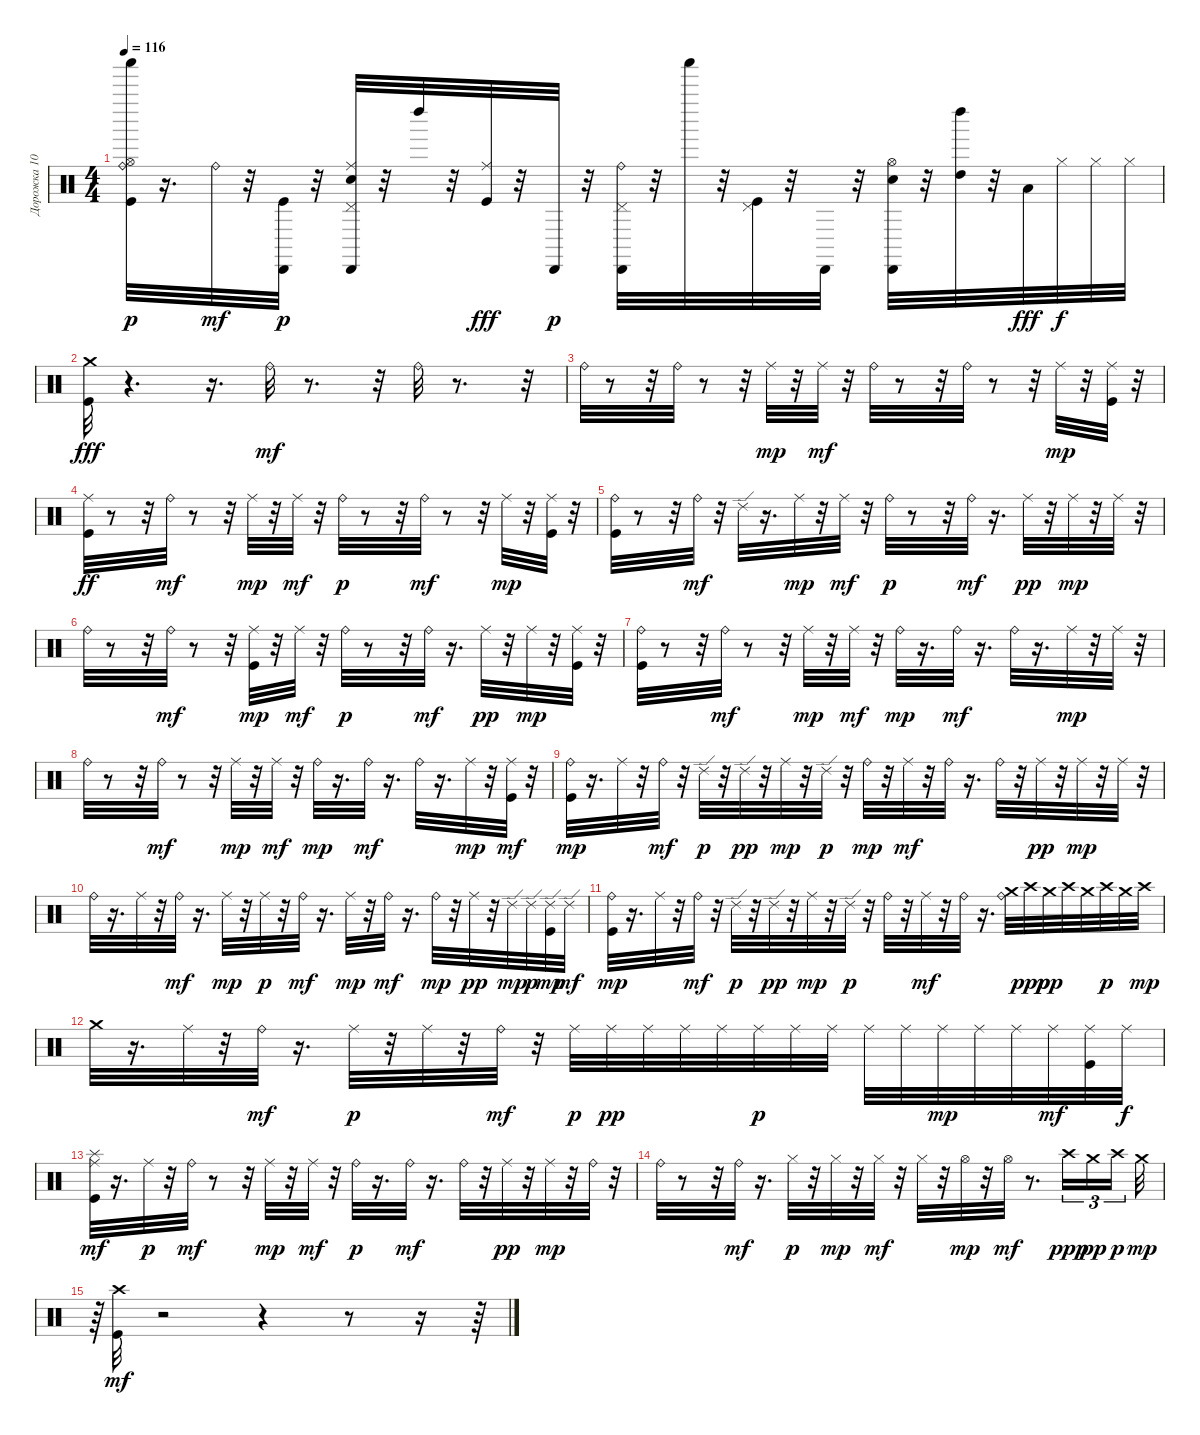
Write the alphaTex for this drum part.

\track ("Дорожка 10" "Дорожка 10") {instrument percussion}
\staff {score}
\articulation defaults
\ts (4 4)
\tempo 116
\clef neutral
\ks c
("Kick (hit)" "Hi-Hat (open)" "Ride (bell)" "Shaker (hit)").32{dy p} r.16{d} "Ride (bell)".32{dy mf} r.32 ("Kick (hit)" "Cabasa (hit)").32{dy p} r.32 ("Electric Snare (hit)" "Ride (middle)" "Pedal Hi-Hat (hit)" "Cabasa (hit)").32 r.32 "Left Maraca (hit)".32 r.32 ("Kick (hit)" "Ride (middle)").32{dy fff} r.32 "Cabasa (hit)".32{dy p} r.32 ("Pedal Hi-Hat (hit)" "Ride (bell)" "Cabasa (hit)").32 r.32 "Shaker (hit)".32 r.32 ("Kick (hit)" "Pedal Hi-Hat (hit)").32 r.32 "Cabasa (hit)".32 r.32 ("Electric Snare (hit)" "Hi-Hat (open)" "Cabasa (hit)").32 r.32 ("High Tom (hit)" "Left Maraca (hit)").32 r.32 "Low Tom (hit)".32{dy fff} "Hi-Hat (closed)".32{dy f} "Hi-Hat (closed)".32 "Hi-Hat (closed)".32 |
("Kick (hit)" "Crash medium (hit)").32{dy fff} r.4{d} r.16{d} "Ride (bell)".32{dy mf} r.8{d} r.32 "Ride (bell)".32 r.8{d} r.32 |
"Ride (bell)".32 r.8 r.32 "Ride (bell)".32 r.8 r.32 "Ride (middle)".32{dy mp} r.32 "Ride (middle)".32{dy mf} r.32 "Ride (bell)".32 r.8 r.32 "Ride (bell)".32 r.8 r.32 "Ride (middle)".32{dy mp} r.32 ("Ride (middle)" "Kick (hit)").32 r.32 |
("Kick (hit)" "Ride (middle)").32{dy ff} r.8 r.32 "Ride (bell)".32{dy mf} r.8 r.32 "Ride (middle)".32{dy mp} r.32 "Ride (middle)".32{dy mf} r.32 "Ride (bell)".32{dy p} r.8 r.32 "Ride (bell)".32{dy mf} r.8 r.32 "Ride (middle)".32{dy mp} r.32 ("Ride (middle)" "Kick (hit)").32 r.32 |
("Ride (bell)" "Kick (hit)").32 r.8 r.32 "Ride (bell)".32{dy mf} r.32 "Ride (edge) 2".32 r.16{d} "Ride (middle)".32{dy mp} r.32 "Ride (middle)".32{dy mf} r.32 "Ride (bell)".32{dy p} r.8 r.32 "Ride (bell)".32{dy mf} r.16{d} "Ride (middle)".32{dy pp} r.32 "Ride (middle)".32{dy mp} r.32 "Ride (middle)".32 r.32 |
"Ride (bell)".32 r.8 r.32 "Ride (bell)".32{dy mf} r.8 r.32 ("Ride (middle)" "Kick (hit)").32{dy mp} r.32 "Ride (middle)".32{dy mf} r.32 "Ride (bell)".32{dy p} r.8 r.32 "Ride (bell)".32{dy mf} r.16{d} "Ride (middle)".32{dy pp} r.32 "Ride (middle)".32{dy mp} r.32 ("Ride (middle)" "Kick (hit)").32 r.32 |
("Ride (bell)" "Kick (hit)").32 r.8 r.32 "Ride (bell)".32{dy mf} r.8 r.32 "Ride (middle)".32{dy mp} r.32 "Ride (middle)".32{dy mf} r.32 "Ride (bell)".32{dy mp} r.16{d} "Ride (bell)".32{dy mf} r.16{d} "Ride (bell)".32 r.16{d} "Ride (middle)".32{dy mp} r.32 "Ride (middle)".32 r.32 |
"Ride (bell)".32 r.8 r.32 "Ride (bell)".32{dy mf} r.8 r.32 "Ride (middle)".32{dy mp} r.32 "Ride (middle)".32{dy mf} r.32 "Ride (bell)".32{dy mp} r.16{d} "Ride (bell)".32{dy mf} r.16{d} "Ride (bell)".32 r.16{d} "Ride (middle)".32{dy mp} r.32 ("Ride (middle)" "Kick (hit)").32{dy mf} r.32 |
("Ride (bell)" "Kick (hit)").32{dy mp} r.16{d} "Ride (middle)".32 r.32 "Ride (bell)".32{dy mf} r.32 "Ride (edge) 2".32{dy p} r.32 "Ride (edge) 2".32{dy pp} r.32 "Ride (middle)".32{dy mp} r.32 "Ride (edge) 2".32{dy p} r.32 "Ride (bell)".32{dy mp} r.32 "Ride (middle)".32{dy mf} r.32 "Ride (bell)".32 r.16{d} "Ride (bell)".32 r.32 "Ride (middle)".32{dy pp} r.32 "Ride (middle)".32{dy mp} r.32 "Ride (middle)".32 r.32 |
"Ride (bell)".32 r.16{d} "Ride (middle)".32 r.32 "Ride (bell)".32{dy mf} r.16{d} "Ride (middle)".32{dy mp} r.32 "Ride (middle)".32{dy p} r.32 "Ride (bell)".32{dy mf} r.16{d} "Ride (middle)".32{dy mp} r.32 "Ride (bell)".32{dy mf} r.16{d} "Ride (bell)".32{dy mp} r.32 "Ride (middle)".32{dy pp} r.32 "Ride (edge) 2".32{dy mp} "Ride (edge) 2".32{dy p} ("Kick (hit)" "Ride (edge) 2").32{dy mp} "Ride (edge) 2".32{dy mf} |
("Kick (hit)" "Ride (bell)").32{dy mp} r.16{d} "Ride (middle)".32 r.32 "Ride (bell)".32{dy mf} r.32 "Ride (edge) 2".32{dy p} r.32 "Ride (edge) 2".32{dy pp} r.32 "Ride (middle)".32{dy mp} r.32 "Ride (edge) 2".32{dy p} r.32 "Ride (bell)".32 r.32 "Ride (middle)".32{dy mf} r.32 "Ride (bell)".32 r.16{d} ("Crash medium (hit)" "Ride (bell)").32 "Crash high (hit)".32{dy ppp} "Crash medium (hit)".32{dy pp} "Crash high (hit)".32 "Crash medium (hit)".32 "Crash high (hit)".32{dy p} "Crash medium (hit)".32 "Crash high (hit)".32{dy mp} |
"Crash medium (hit)".32 r.16{d} "Ride (middle)".32 r.32 "Ride (bell)".32{dy mf} r.16{d} "Ride (middle)".32{dy p} r.32 "Ride (middle)".32 r.32 "Ride (bell)".32{dy mf} r.32 "Ride (middle)".32{dy p} "Ride (middle)".32{dy pp} "Ride (middle)".32 "Ride (middle)".32 "Ride (middle)".32 "Ride (middle)".32{dy p} "Ride (middle)".32 "Ride (middle)".32 "Ride (middle)".32 "Ride (middle)".32 "Ride (middle)".32{dy mp} "Ride (middle)".32 "Ride (middle)".32 "Ride (middle)".32{dy mf} ("Ride (middle)" "Kick (hit)").32 "Ride (middle)".32{dy f} |
("Ride (middle)" "Splash (hit)" "Kick (hit)").32{dy mf} r.16{d} "Ride (middle)".32{dy p} r.32 "Ride (bell)".32{dy mf} r.8 r.32 "Ride (middle)".32{dy mp} r.32 "Ride (middle)".32{dy mf} r.32 "Ride (bell)".32{dy p} r.16{d} "Ride (bell)".32{dy mf} r.16{d} "Ride (bell)".32 r.32 "Ride (middle)".32{dy pp} r.32 "Ride (middle)".32{dy mp} r.32 "Ride (bell)".32 r.32 |
"Ride (bell)".32 r.8 r.32 "Ride (bell)".32{dy mf} r.16{d} "Hi-Hat (closed)".32{dy p} r.32 "Hi-Hat (closed)".32{dy mp} r.32 "Hi-Hat (closed)".32{dy mf} r.32 "Hi-Hat (closed)".32 r.32 "Hi-Hat (open)".32{dy mp} r.32 "Hi-Hat (open)".32{dy mf} r.8{d} "Crash high (hit)".16{tu (3 2) dy ppp} "Crash medium (hit)".16{tu (3 2) dy pp} "Crash high (hit)".16{tu (3 2) dy p beam splitsecondary} "Crash medium (hit)".32{dy mp} |
r.64{tu (3 2)} ("Kick (hit)" "Crash high (hit)").32{dy mf} r.2 r.4 r.8 r.16 r.64
